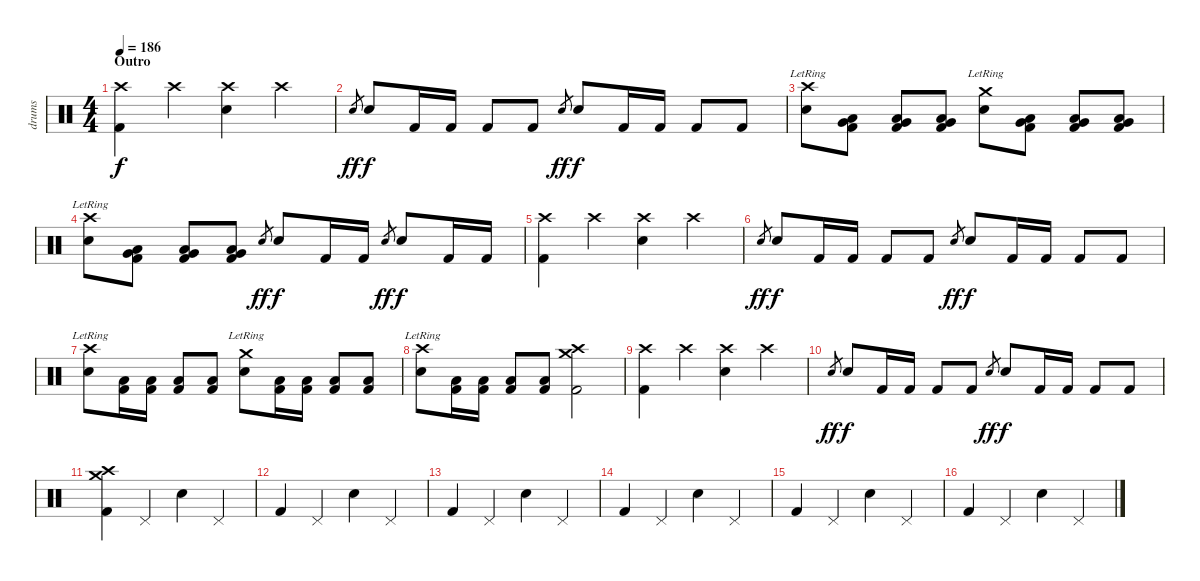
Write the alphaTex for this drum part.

\track ("drums" "drums") {instrument percussion}
\staff {score}
\articulation defaults
\ts (4 4)
\section ("" "Outro")
\tempo 186
\clef neutral
\ks c
("Crash high (hit)" "Kick (hit) 2").4{dy f} "Crash high (hit)".4 ("Crash high (hit)" "Electric Snare (hit)").4 "Crash high (hit)".4 |
"Snare (hit) 2".8{gr dy ff} "Electric Snare (hit)".8{dy f} "Kick (hit) 2".16 "Kick (hit) 2".16 "Kick (hit) 2".8 "Kick (hit) 2".8 "Snare (hit) 2".8{gr dy ff} "Electric Snare (hit)".8{dy f} "Kick (hit) 2".16 "Kick (hit) 2".16 "Kick (hit) 2".8 "Kick (hit) 2".8 |
("Crash high (hit)"{lr} "Electric Snare (hit)").8 ("Low Tom (hit)" "Very Low Tom (hit)" "Kick (hit) 2").8 ("Low Tom (hit)" "Very Low Tom (hit)" "Kick (hit) 2").8 ("Low Tom (hit)" "Very Low Tom (hit)" "Kick (hit) 2").8 ("Crash medium (hit)"{lr} "Electric Snare (hit)").8 ("Low Tom (hit)" "Very Low Tom (hit)" "Kick (hit) 2").8 ("Low Tom (hit)" "Very Low Tom (hit)" "Kick (hit) 2").8 ("Low Tom (hit)" "Very Low Tom (hit)" "Kick (hit) 2").8 |
("Crash high (hit)"{lr} "Electric Snare (hit)").8 ("Low Tom (hit)" "Very Low Tom (hit)" "Kick (hit) 2").8 ("Low Tom (hit)" "Very Low Tom (hit)" "Kick (hit) 2").8 ("Low Tom (hit)" "Very Low Tom (hit)" "Kick (hit) 2").8 "Snare (hit) 2".8{gr dy ff} "Electric Snare (hit)".8{dy f} "Kick (hit) 2".16 "Kick (hit) 2".16 "Snare (hit) 2".8{gr dy ff} "Electric Snare (hit)".8{dy f} "Kick (hit) 2".16 "Kick (hit) 2".16 |
("Crash high (hit)" "Kick (hit) 2").4 "Crash high (hit)".4 ("Crash high (hit)" "Electric Snare (hit)").4 "Crash high (hit)".4 |
"Snare (hit) 2".8{gr dy ff} "Electric Snare (hit)".8{dy f} "Kick (hit) 2".16 "Kick (hit) 2".16 "Kick (hit) 2".8 "Kick (hit) 2".8 "Snare (hit) 2".8{gr dy ff} "Electric Snare (hit)".8{dy f} "Kick (hit) 2".16 "Kick (hit) 2".16 "Kick (hit) 2".8 "Kick (hit) 2".8 |
("Crash high (hit)"{lr} "Electric Snare (hit)").8 ("Low Tom (hit)" "Kick (hit) 2").16 ("Low Tom (hit)" "Kick (hit) 2").16 ("Low Tom (hit)" "Kick (hit) 2").8 ("Low Tom (hit)" "Kick (hit) 2").8 ("Crash medium (hit)"{lr} "Electric Snare (hit)").8 ("Low Tom (hit)" "Kick (hit) 2").16 ("Low Tom (hit)" "Kick (hit) 2").16 ("Low Tom (hit)" "Kick (hit) 2").8 ("Low Tom (hit)" "Kick (hit) 2").8 |
("Crash high (hit)"{lr} "Electric Snare (hit)").8 ("Low Tom (hit)" "Kick (hit) 2").16 ("Low Tom (hit)" "Kick (hit) 2").16 ("Low Tom (hit)" "Kick (hit) 2").8 ("Low Tom (hit)" "Kick (hit) 2").8 ("Crash medium (hit)" "Crash high (hit)" "Kick (hit) 2").2 |
("Crash high (hit)" "Kick (hit) 2").4 "Crash high (hit)".4 ("Crash high (hit)" "Electric Snare (hit)").4 "Crash high (hit)".4 |
"Snare (hit) 2".8{gr dy ff} "Electric Snare (hit)".8{dy f} "Kick (hit) 2".16 "Kick (hit) 2".16 "Kick (hit) 2".8 "Kick (hit) 2".8 "Snare (hit) 2".8{gr dy ff} "Electric Snare (hit)".8{dy f} "Kick (hit) 2".16 "Kick (hit) 2".16 "Kick (hit) 2".8 "Kick (hit) 2".8 |
("Crash medium (hit)" "Crash high (hit)" "Kick (hit) 2").4{volume 7} "Pedal Hi-Hat (hit)".4 "Electric Snare (hit)".4 "Pedal Hi-Hat (hit)".4 |
"Kick (hit) 2".4 "Pedal Hi-Hat (hit)".4 "Electric Snare (hit)".4 "Pedal Hi-Hat (hit)".4 |
"Kick (hit) 2".4 "Pedal Hi-Hat (hit)".4 "Electric Snare (hit)".4 "Pedal Hi-Hat (hit)".4 |
"Kick (hit) 2".4 "Pedal Hi-Hat (hit)".4 "Electric Snare (hit)".4 "Pedal Hi-Hat (hit)".4 |
"Kick (hit) 2".4{volume 0} "Pedal Hi-Hat (hit)".4 "Electric Snare (hit)".4 "Pedal Hi-Hat (hit)".4 |
"Kick (hit) 2".4 "Pedal Hi-Hat (hit)".4 "Electric Snare (hit)".4 "Pedal Hi-Hat (hit)".4
